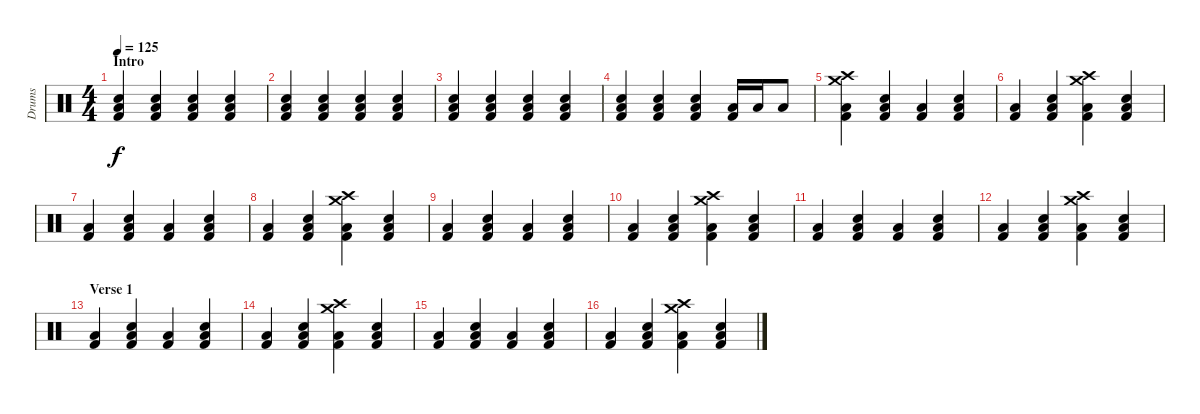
\track ("Drums" "Drums") {instrument percussion}
\staff {score}
\articulation defaults
\ts (4 4)
\section ("" "Intro")
\tempo 125
\clef neutral
\ks c
("Snare (hit) 2" "Low Floor Tom (hit)" "Kick (hit) 2").4{dy f} ("Snare (hit) 2" "Low Floor Tom (hit)" "Kick (hit) 2").4 ("Snare (hit) 2" "Low Floor Tom (hit)" "Kick (hit) 2").4 ("Snare (hit) 2" "Low Floor Tom (hit)" "Kick (hit) 2").4 |
("Snare (hit) 2" "Low Floor Tom (hit)" "Kick (hit) 2").4 ("Snare (hit) 2" "Low Floor Tom (hit)" "Kick (hit) 2").4 ("Snare (hit) 2" "Low Floor Tom (hit)" "Kick (hit) 2").4 ("Snare (hit) 2" "Low Floor Tom (hit)" "Kick (hit) 2").4 |
("Snare (hit) 2" "Low Floor Tom (hit)" "Kick (hit) 2").4 ("Snare (hit) 2" "Low Floor Tom (hit)" "Kick (hit) 2").4 ("Snare (hit) 2" "Low Floor Tom (hit)" "Kick (hit) 2").4 ("Snare (hit) 2" "Low Floor Tom (hit)" "Kick (hit) 2").4 |
("Snare (hit) 2" "Low Floor Tom (hit)" "Kick (hit) 2").4 ("Snare (hit) 2" "Low Floor Tom (hit)" "Kick (hit) 2").4 ("Snare (hit) 2" "Low Floor Tom (hit)" "Kick (hit) 2").4 ("Low Floor Tom (hit)" "Kick (hit) 2").16 "Low Floor Tom (hit)".16 "Low Floor Tom (hit)".8 |
("Crash high (hit)" "Crash medium (hit)" "Low Floor Tom (hit)" "Kick (hit) 2").4 ("Snare (hit) 2" "Low Floor Tom (hit)" "Kick (hit) 2").4 ("Low Floor Tom (hit)" "Kick (hit) 2").4 ("Snare (hit) 2" "Low Floor Tom (hit)" "Kick (hit) 2").4 |
("Low Floor Tom (hit)" "Kick (hit) 2").4 ("Snare (hit) 2" "Low Floor Tom (hit)" "Kick (hit) 2").4 ("Crash high (hit)" "Crash medium (hit)" "Low Floor Tom (hit)" "Kick (hit) 2").4 ("Snare (hit) 2" "Low Floor Tom (hit)" "Kick (hit) 2").4 |
("Low Floor Tom (hit)" "Kick (hit) 2").4 ("Snare (hit) 2" "Low Floor Tom (hit)" "Kick (hit) 2").4 ("Low Floor Tom (hit)" "Kick (hit) 2").4 ("Snare (hit) 2" "Low Floor Tom (hit)" "Kick (hit) 2").4 |
("Low Floor Tom (hit)" "Kick (hit) 2").4 ("Snare (hit) 2" "Low Floor Tom (hit)" "Kick (hit) 2").4 ("Crash high (hit)" "Crash medium (hit)" "Low Floor Tom (hit)" "Kick (hit) 2").4 ("Snare (hit) 2" "Low Floor Tom (hit)" "Kick (hit) 2").4 |
("Low Floor Tom (hit)" "Kick (hit) 2").4 ("Snare (hit) 2" "Low Floor Tom (hit)" "Kick (hit) 2").4 ("Low Floor Tom (hit)" "Kick (hit) 2").4 ("Snare (hit) 2" "Low Floor Tom (hit)" "Kick (hit) 2").4 |
("Low Floor Tom (hit)" "Kick (hit) 2").4 ("Snare (hit) 2" "Low Floor Tom (hit)" "Kick (hit) 2").4 ("Crash high (hit)" "Crash medium (hit)" "Low Floor Tom (hit)" "Kick (hit) 2").4 ("Snare (hit) 2" "Low Floor Tom (hit)" "Kick (hit) 2").4 |
("Low Floor Tom (hit)" "Kick (hit) 2").4 ("Snare (hit) 2" "Low Floor Tom (hit)" "Kick (hit) 2").4 ("Low Floor Tom (hit)" "Kick (hit) 2").4 ("Snare (hit) 2" "Low Floor Tom (hit)" "Kick (hit) 2").4 |
("Low Floor Tom (hit)" "Kick (hit) 2").4 ("Snare (hit) 2" "Low Floor Tom (hit)" "Kick (hit) 2").4 ("Crash high (hit)" "Crash medium (hit)" "Low Floor Tom (hit)" "Kick (hit) 2").4 ("Snare (hit) 2" "Low Floor Tom (hit)" "Kick (hit) 2").4 |
\section ("" "Verse 1")
("Low Floor Tom (hit)" "Kick (hit) 2").4 ("Snare (hit) 2" "Low Floor Tom (hit)" "Kick (hit) 2").4 ("Low Floor Tom (hit)" "Kick (hit) 2").4 ("Snare (hit) 2" "Low Floor Tom (hit)" "Kick (hit) 2").4 |
("Low Floor Tom (hit)" "Kick (hit) 2").4 ("Snare (hit) 2" "Low Floor Tom (hit)" "Kick (hit) 2").4 ("Crash high (hit)" "Crash medium (hit)" "Low Floor Tom (hit)" "Kick (hit) 2").4 ("Snare (hit) 2" "Low Floor Tom (hit)" "Kick (hit) 2").4 |
("Low Floor Tom (hit)" "Kick (hit) 2").4 ("Snare (hit) 2" "Low Floor Tom (hit)" "Kick (hit) 2").4 ("Low Floor Tom (hit)" "Kick (hit) 2").4 ("Snare (hit) 2" "Low Floor Tom (hit)" "Kick (hit) 2").4 |
("Low Floor Tom (hit)" "Kick (hit) 2").4 ("Snare (hit) 2" "Low Floor Tom (hit)" "Kick (hit) 2").4 ("Crash high (hit)" "Crash medium (hit)" "Low Floor Tom (hit)" "Kick (hit) 2").4 ("Snare (hit) 2" "Low Floor Tom (hit)" "Kick (hit) 2").4
